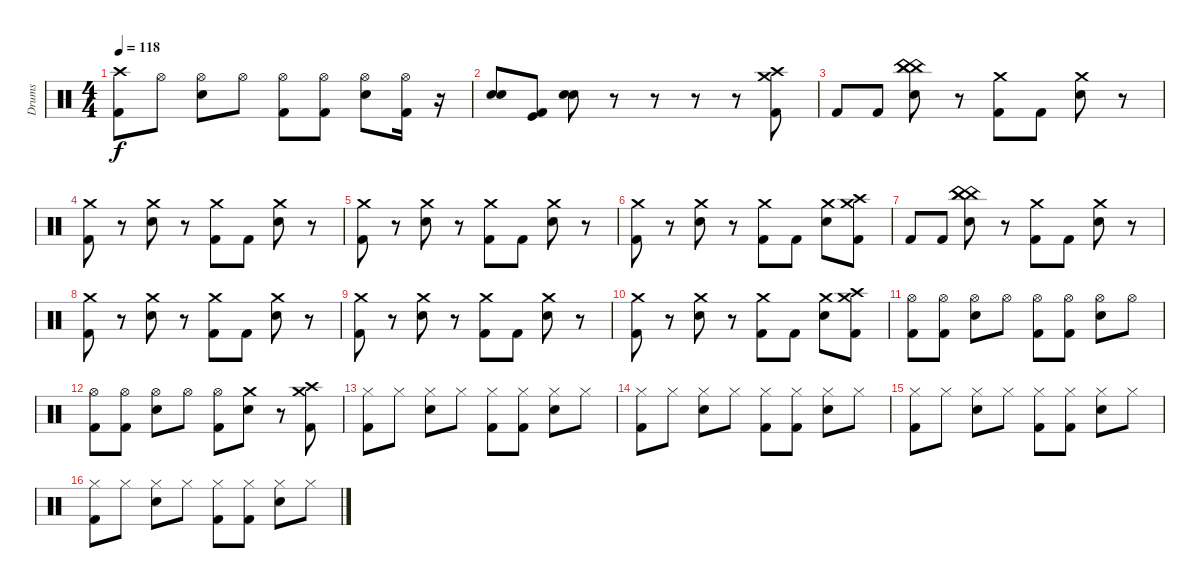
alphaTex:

\track ("Drums" "Drums") {instrument percussion}
\staff {score}
\articulation defaults
\ts (4 4)
\tempo 118
\clef neutral
\ks c
("Crash high (hit)" "Kick (hit) 2").8{dy f} "Hi-Hat (open)".8 ("Hi-Hat (open)" "Electric Snare (hit)").8 "Hi-Hat (open)".8 ("Hi-Hat (open)" "Kick (hit) 2").8 ("Hi-Hat (open)" "Kick (hit) 2").8 ("Hi-Hat (open)" "Electric Snare (hit)").8 ("Hi-Hat (open)" "Kick (hit) 2").16 r.16 |
("Electric Snare (hit)" "Electric Snare (hit)").8 ("Kick (hit)" "Kick (hit) 2").8 ("Electric Snare (hit)" "Electric Snare (hit)").8 r.8 r.8 r.8 r.8 ("Crash medium (hit)" "Crash high (hit)" "Kick (hit) 2").8 |
"Kick (hit) 2".8 "Kick (hit) 2".8 ("China (hit)" "China (hit)" "China (hit)" "Electric Snare (hit)").8 r.8 ("Crash medium (hit)" "Kick (hit) 2").8 "Kick (hit) 2".8 ("Crash medium (hit)" "Electric Snare (hit)").8 r.8 |
("Crash medium (hit)" "Kick (hit) 2").8 r.8 ("Crash medium (hit)" "Electric Snare (hit)").8 r.8 ("Crash medium (hit)" "Kick (hit) 2").8 "Kick (hit) 2".8 ("Crash medium (hit)" "Electric Snare (hit)").8 r.8 |
("Crash medium (hit)" "Kick (hit) 2").8 r.8 ("Crash medium (hit)" "Electric Snare (hit)").8 r.8 ("Crash medium (hit)" "Kick (hit) 2").8 "Kick (hit) 2".8 ("Crash medium (hit)" "Electric Snare (hit)").8 r.8 |
("Crash medium (hit)" "Kick (hit) 2").8 r.8 ("Crash medium (hit)" "Electric Snare (hit)").8 r.8 ("Crash medium (hit)" "Kick (hit) 2").8 "Kick (hit) 2".8 ("Crash medium (hit)" "Electric Snare (hit)").8 ("Crash medium (hit)" "Crash high (hit)" "Kick (hit) 2").8 |
"Kick (hit) 2".8 "Kick (hit) 2".8 ("China (hit)" "China (hit)" "China (hit)" "Electric Snare (hit)").8 r.8 ("Crash medium (hit)" "Kick (hit) 2").8 "Kick (hit) 2".8 ("Crash medium (hit)" "Electric Snare (hit)").8 r.8 |
("Crash medium (hit)" "Kick (hit) 2").8 r.8 ("Crash medium (hit)" "Electric Snare (hit)").8 r.8 ("Crash medium (hit)" "Kick (hit) 2").8 "Kick (hit) 2".8 ("Crash medium (hit)" "Electric Snare (hit)").8 r.8 |
("Crash medium (hit)" "Kick (hit) 2").8 r.8 ("Crash medium (hit)" "Electric Snare (hit)").8 r.8 ("Crash medium (hit)" "Kick (hit) 2").8 "Kick (hit) 2".8 ("Crash medium (hit)" "Electric Snare (hit)").8 r.8 |
("Crash medium (hit)" "Kick (hit) 2").8 r.8 ("Crash medium (hit)" "Electric Snare (hit)").8 r.8 ("Crash medium (hit)" "Kick (hit) 2").8 "Kick (hit) 2".8 ("Crash medium (hit)" "Electric Snare (hit)").8 ("Crash medium (hit)" "Crash high (hit)" "Kick (hit) 2").8 |
("Hi-Hat (open)" "Kick (hit) 2").8 ("Hi-Hat (open)" "Kick (hit) 2").8 ("Hi-Hat (open)" "Electric Snare (hit)").8 "Hi-Hat (open)".8 ("Hi-Hat (open)" "Kick (hit) 2").8 ("Hi-Hat (open)" "Kick (hit) 2").8 ("Hi-Hat (open)" "Electric Snare (hit)").8 "Hi-Hat (open)".8 |
("Hi-Hat (open)" "Kick (hit) 2").8 ("Hi-Hat (open)" "Kick (hit) 2").8 ("Hi-Hat (open)" "Electric Snare (hit)").8 "Hi-Hat (open)".8 ("Hi-Hat (open)" "Kick (hit) 2").8 ("Crash medium (hit)" "Electric Snare (hit)").8 r.8 ("Crash medium (hit)" "Crash high (hit)" "Kick (hit) 2").8 |
("Hi-Hat (closed)" "Kick (hit) 2").8 "Hi-Hat (closed)".8 ("Hi-Hat (closed)" "Electric Snare (hit)").8 "Hi-Hat (closed)".8 ("Hi-Hat (closed)" "Kick (hit) 2").8 ("Hi-Hat (closed)" "Kick (hit) 2").8 ("Hi-Hat (closed)" "Electric Snare (hit)").8 "Hi-Hat (closed)".8 |
("Hi-Hat (closed)" "Kick (hit) 2").8 "Hi-Hat (closed)".8 ("Hi-Hat (closed)" "Electric Snare (hit)").8 "Hi-Hat (closed)".8 ("Hi-Hat (closed)" "Kick (hit) 2").8 ("Hi-Hat (closed)" "Kick (hit) 2").8 ("Hi-Hat (closed)" "Electric Snare (hit)").8 "Hi-Hat (closed)".8 |
("Hi-Hat (closed)" "Kick (hit) 2").8 "Hi-Hat (closed)".8 ("Hi-Hat (closed)" "Electric Snare (hit)").8 "Hi-Hat (closed)".8 ("Hi-Hat (closed)" "Kick (hit) 2").8 ("Hi-Hat (closed)" "Kick (hit) 2").8 ("Hi-Hat (closed)" "Electric Snare (hit)").8 "Hi-Hat (closed)".8 |
("Hi-Hat (closed)" "Kick (hit) 2").8 "Hi-Hat (closed)".8 ("Hi-Hat (closed)" "Electric Snare (hit)").8 "Hi-Hat (closed)".8 ("Hi-Hat (closed)" "Kick (hit) 2").8 ("Hi-Hat (closed)" "Kick (hit) 2").8 ("Hi-Hat (closed)" "Electric Snare (hit)").8 "Hi-Hat (closed)".8
